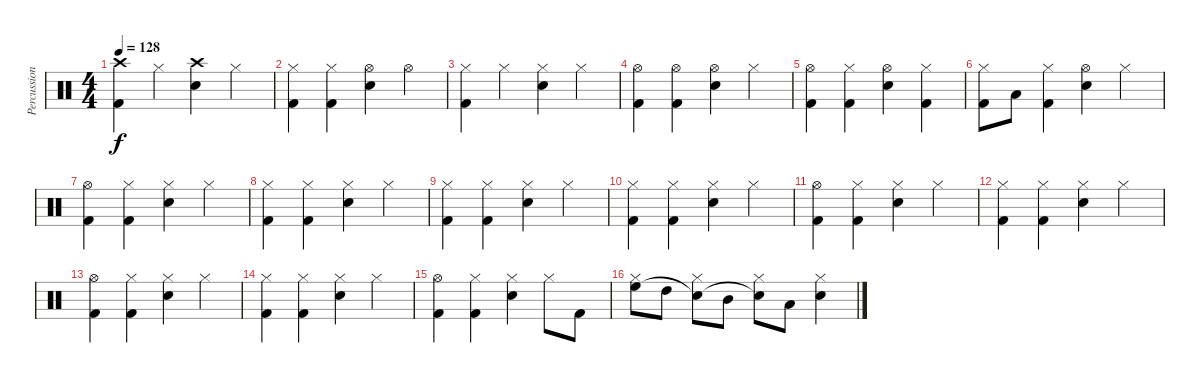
\track ("Percussion" "Percussion") {instrument percussion}
\staff {score}
\articulation defaults
\ts (4 4)
\tempo 128
\clef neutral
\ks c
("Crash high (hit)" "Kick (hit) 2").4{dy f} "Hi-Hat (closed)".4 ("Crash high (hit)" "Electric Snare (hit)").4 "Hi-Hat (closed)".4 |
("Hi-Hat (closed)" "Kick (hit) 2").4 ("Hi-Hat (closed)" "Kick (hit) 2").4 ("Hi-Hat (open)" "Electric Snare (hit)").4 "Hi-Hat (open)".4 |
("Hi-Hat (closed)" "Kick (hit) 2").4 "Hi-Hat (closed)".4 ("Hi-Hat (closed)" "Electric Snare (hit)").4 "Hi-Hat (closed)".4 |
("Hi-Hat (open)" "Kick (hit) 2").4 ("Hi-Hat (open)" "Kick (hit) 2").4 ("Hi-Hat (open)" "Electric Snare (hit)").4 "Hi-Hat (closed)".4 |
("Hi-Hat (open)" "Kick (hit) 2").4 ("Hi-Hat (closed)" "Kick (hit) 2").4 ("Hi-Hat (open)" "Electric Snare (hit)").4 ("Hi-Hat (closed)" "Kick (hit) 2").4 |
("Hi-Hat (closed)" "Kick (hit) 2").8 "Low Tom (hit)".8 ("Hi-Hat (closed)" "Kick (hit) 2").4 ("Hi-Hat (open)" "Electric Snare (hit)").4 "Hi-Hat (closed)".4 |
("Hi-Hat (open)" "Kick (hit) 2").4 ("Hi-Hat (closed)" "Kick (hit) 2").4 ("Hi-Hat (closed)" "Electric Snare (hit)").4 "Hi-Hat (closed)".4 |
("Hi-Hat (closed)" "Kick (hit) 2").4 ("Hi-Hat (closed)" "Kick (hit) 2").4 ("Hi-Hat (closed)" "Electric Snare (hit)").4 "Hi-Hat (closed)".4 |
("Hi-Hat (closed)" "Kick (hit) 2").4 ("Hi-Hat (closed)" "Kick (hit) 2").4 ("Hi-Hat (closed)" "Electric Snare (hit)").4 "Hi-Hat (closed)".4 |
("Hi-Hat (closed)" "Kick (hit) 2").4 ("Hi-Hat (closed)" "Kick (hit) 2").4 ("Hi-Hat (closed)" "Electric Snare (hit)").4 "Hi-Hat (closed)".4 |
("Hi-Hat (open)" "Kick (hit) 2").4 ("Hi-Hat (closed)" "Kick (hit) 2").4 ("Hi-Hat (closed)" "Electric Snare (hit)").4 "Hi-Hat (closed)".4 |
("Hi-Hat (closed)" "Kick (hit) 2").4 ("Hi-Hat (closed)" "Kick (hit) 2").4 ("Hi-Hat (closed)" "Electric Snare (hit)").4 "Hi-Hat (closed)".4 |
("Hi-Hat (open)" "Kick (hit) 2").4 ("Hi-Hat (closed)" "Kick (hit) 2").4 ("Hi-Hat (closed)" "Electric Snare (hit)").4 "Hi-Hat (closed)".4 |
("Hi-Hat (closed)" "Kick (hit) 2").4 ("Hi-Hat (closed)" "Kick (hit) 2").4 ("Hi-Hat (closed)" "Electric Snare (hit)").4 "Hi-Hat (closed)".4 |
("Hi-Hat (open)" "Kick (hit) 2").4 ("Hi-Hat (closed)" "Kick (hit) 2").4 ("Hi-Hat (closed)" "Electric Snare (hit)").4 "Hi-Hat (closed)".8 "Kick (hit) 2".8 |
("Hi-Hat (closed)" "High Floor Tom (hit)").8 "High Tom (hit)".8 ("Hi-Hat (closed)" "Snare (hit)"{t}).8 "Mid Tom (hit)".8 ("Hi-Hat (closed)" "Snare (hit)"{t}).8 "Low Tom (hit)".8 ("Hi-Hat (closed)" "Electric Snare (hit)").4
